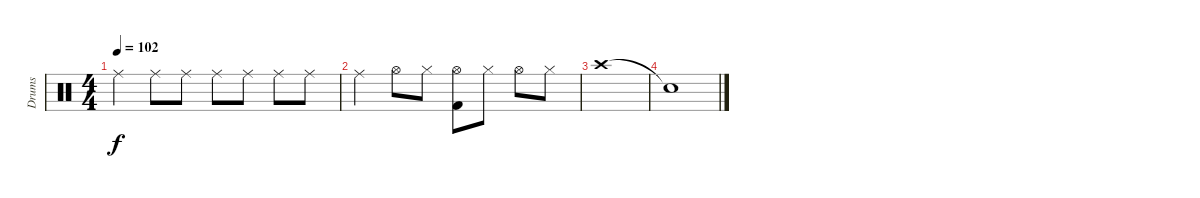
\track ("Drums" "Drums") {instrument percussion}
\staff {score}
\articulation defaults
\ts (4 4)
\tempo 102
\clef neutral
\ks c "Ride (middle)".4{dy f} "Ride (middle)".8 "Ride (middle)".8 "Ride (middle)".8 "Ride (middle)".8 "Ride (middle)".8 "Ride (middle)".8
|
"Ride (middle)".4 "Hi-Hat (open)".8 "Hi-Hat (closed)".8 ("Hi-Hat (open)" "Kick (hit) 2").8 "Hi-Hat (closed)".8 "Hi-Hat (open)".8 "Hi-Hat (closed)".8 |
"Crash high (hit)".1 |
"Snare (hit)"{t}.1
